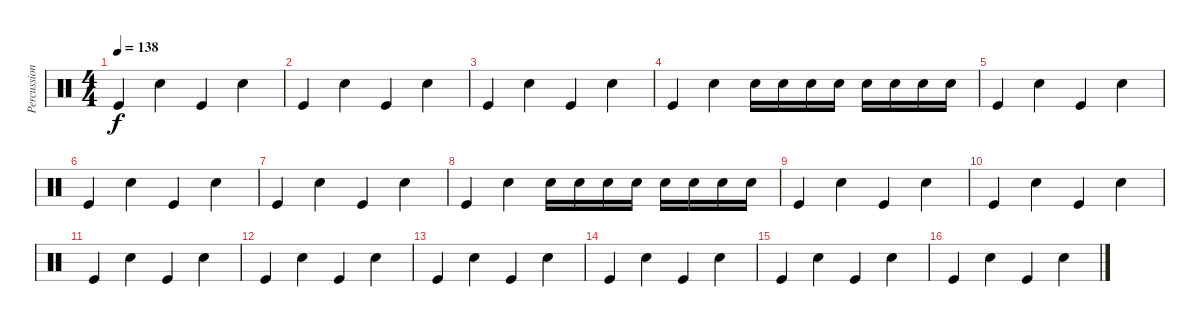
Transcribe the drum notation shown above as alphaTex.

\track ("Percussion" "Percussion") {instrument percussion}
\staff {score}
\articulation defaults
\ts (4 4)
\tempo 138
\clef neutral
\ks c "Kick (hit)".4{dy f} "Snare (hit) 2".4 "Kick (hit)".4 "Snare (hit) 2".4
|
"Kick (hit)".4 "Snare (hit) 2".4 "Kick (hit)".4 "Snare (hit) 2".4 |
"Kick (hit)".4 "Snare (hit) 2".4 "Kick (hit)".4 "Snare (hit) 2".4 |
"Kick (hit)".4 "Snare (hit) 2".4 "Snare (hit) 2".16 "Snare (hit) 2".16 "Snare (hit) 2".16 "Snare (hit) 2".16 "Snare (hit) 2".16 "Snare (hit) 2".16 "Snare (hit) 2".16 "Snare (hit) 2".16 |
"Kick (hit)".4 "Snare (hit) 2".4 "Kick (hit)".4 "Snare (hit) 2".4 |
"Kick (hit)".4 "Snare (hit) 2".4 "Kick (hit)".4 "Snare (hit) 2".4 |
"Kick (hit)".4 "Snare (hit) 2".4 "Kick (hit)".4 "Snare (hit) 2".4 |
"Kick (hit)".4 "Snare (hit) 2".4 "Snare (hit) 2".16 "Snare (hit) 2".16 "Snare (hit) 2".16 "Snare (hit) 2".16 "Snare (hit) 2".16 "Snare (hit) 2".16 "Snare (hit) 2".16 "Snare (hit) 2".16 |
"Kick (hit)".4 "Snare (hit) 2".4 "Kick (hit)".4 "Snare (hit) 2".4 |
"Kick (hit)".4 "Snare (hit) 2".4 "Kick (hit)".4 "Snare (hit) 2".4 |
"Kick (hit)".4 "Snare (hit) 2".4 "Kick (hit)".4 "Snare (hit) 2".4 |
"Kick (hit)".4 "Snare (hit) 2".4 "Kick (hit)".4 "Snare (hit) 2".4 |
"Kick (hit)".4 "Snare (hit) 2".4 "Kick (hit)".4 "Snare (hit) 2".4 |
"Kick (hit)".4 "Snare (hit) 2".4 "Kick (hit)".4 "Snare (hit) 2".4 |
"Kick (hit)".4 "Snare (hit) 2".4 "Kick (hit)".4 "Snare (hit) 2".4 |
"Kick (hit)".4 "Snare (hit) 2".4 "Kick (hit)".4 "Snare (hit) 2".4
